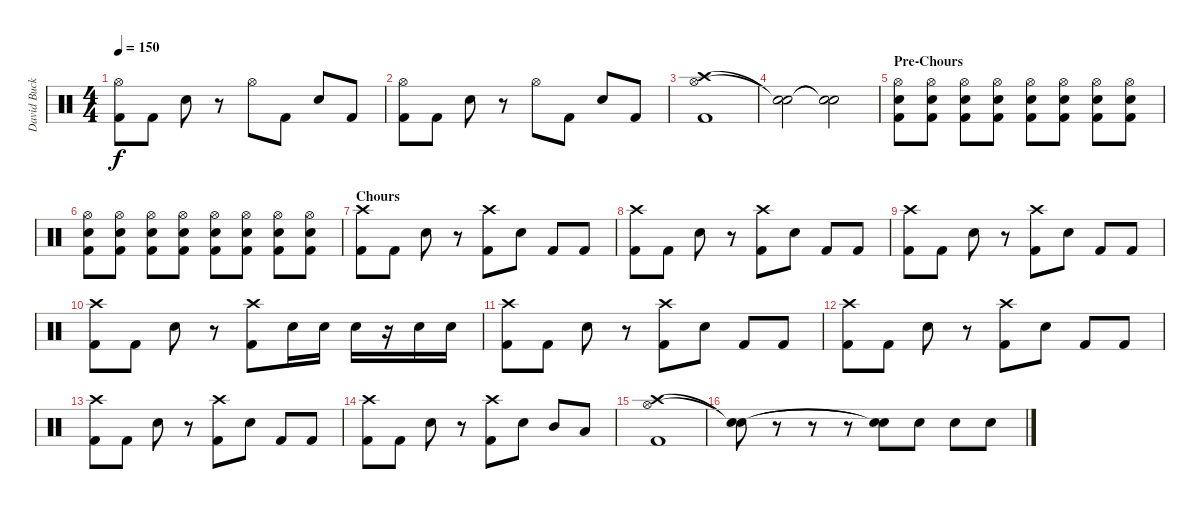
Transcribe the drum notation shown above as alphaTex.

\track ("David Buckner" "David Buck") {instrument percussion}
\staff {score}
\articulation defaults
\ts (4 4)
\tempo 150
\clef neutral
\ks c
("Hi-Hat (open)" "Kick (hit) 2").8{dy f} "Kick (hit) 2".8 "Snare (hit) 2".8 r.8 "Hi-Hat (open)".8 "Kick (hit) 2".8 "Snare (hit) 2".8 "Kick (hit) 2".8 |
("Hi-Hat (open)" "Kick (hit) 2").8 "Kick (hit) 2".8 "Snare (hit) 2".8 r.8 "Hi-Hat (open)".8 "Kick (hit) 2".8 "Snare (hit) 2".8 "Kick (hit) 2".8 |
("Crash high (hit)" "Hi-Hat (open)" "Kick (hit) 2").1 |
("Snare (hit)"{t} "Snare (hit)"{t}).2 ("Snare (hit)"{t} "Snare (hit)"{t}).2 |
\section ("" "Pre-Chours")
("Hi-Hat (open)" "Snare (hit) 2" "Kick (hit) 2").8 ("Hi-Hat (open)" "Snare (hit) 2" "Kick (hit) 2").8 ("Hi-Hat (open)" "Snare (hit) 2" "Kick (hit) 2").8 ("Hi-Hat (open)" "Snare (hit) 2" "Kick (hit) 2").8 ("Hi-Hat (open)" "Snare (hit) 2" "Kick (hit) 2").8 ("Hi-Hat (open)" "Snare (hit) 2" "Kick (hit) 2").8 ("Hi-Hat (open)" "Snare (hit) 2" "Kick (hit) 2").8 ("Hi-Hat (open)" "Snare (hit) 2" "Kick (hit) 2").8 |
("Hi-Hat (open)" "Snare (hit) 2" "Kick (hit) 2").8 ("Hi-Hat (open)" "Snare (hit) 2" "Kick (hit) 2").8 ("Hi-Hat (open)" "Snare (hit) 2" "Kick (hit) 2").8 ("Hi-Hat (open)" "Snare (hit) 2" "Kick (hit) 2").8 ("Hi-Hat (open)" "Snare (hit) 2" "Kick (hit) 2").8 ("Hi-Hat (open)" "Snare (hit) 2" "Kick (hit) 2").8 ("Hi-Hat (open)" "Snare (hit) 2" "Kick (hit) 2").8 ("Hi-Hat (open)" "Snare (hit) 2" "Kick (hit) 2").8 |
\section ("" "Chours")
("Crash high (hit)" "Kick (hit) 2").8 "Kick (hit) 2".8 "Snare (hit) 2".8 r.8 ("Crash high (hit)" "Kick (hit) 2").8 "Snare (hit) 2".8 "Kick (hit) 2".8 "Kick (hit) 2".8 |
("Crash high (hit)" "Kick (hit) 2").8 "Kick (hit) 2".8 "Snare (hit) 2".8 r.8 ("Crash high (hit)" "Kick (hit) 2").8 "Snare (hit) 2".8 "Kick (hit) 2".8 "Kick (hit) 2".8 |
("Crash high (hit)" "Kick (hit) 2").8 "Kick (hit) 2".8 "Snare (hit) 2".8 r.8 ("Crash high (hit)" "Kick (hit) 2").8 "Snare (hit) 2".8 "Kick (hit) 2".8 "Kick (hit) 2".8 |
("Crash high (hit)" "Kick (hit) 2").8 "Kick (hit) 2".8 "Snare (hit) 2".8 r.8 ("Crash high (hit)" "Kick (hit) 2").8 "Snare (hit) 2".16 "Snare (hit) 2".16 "Snare (hit) 2".16 r.16 "Snare (hit) 2".16 "Snare (hit) 2".16 |
("Crash high (hit)" "Kick (hit) 2").8 "Kick (hit) 2".8 "Snare (hit) 2".8 r.8 ("Crash high (hit)" "Kick (hit) 2").8 "Snare (hit) 2".8 "Kick (hit) 2".8 "Kick (hit) 2".8 |
("Crash high (hit)" "Kick (hit) 2").8 "Kick (hit) 2".8 "Snare (hit) 2".8 r.8 ("Crash high (hit)" "Kick (hit) 2").8 "Snare (hit) 2".8 "Kick (hit) 2".8 "Kick (hit) 2".8 |
("Crash high (hit)" "Kick (hit) 2").8 "Kick (hit) 2".8 "Snare (hit) 2".8 r.8 ("Crash high (hit)" "Kick (hit) 2").8 "Snare (hit) 2".8 "Kick (hit) 2".8 "Kick (hit) 2".8 |
("Crash high (hit)" "Kick (hit) 2").8 "Kick (hit) 2".8 "Snare (hit) 2".8 r.8 ("Crash high (hit)" "Kick (hit) 2").8 "Snare (hit) 2".8 "Mid Tom (hit)".8 "Low Tom (hit)".8 |
("Crash high (hit)" "Hi-Hat (open)" "Kick (hit) 2").1 |
("Snare (hit)"{t} "Snare (hit)"{t}).8 r.8 r.8 r.8 ("Snare (hit)"{t} "Snare (hit)"{t}).8 "Snare (hit) 2".8 "Snare (hit) 2".8 "Snare (hit) 2".8
